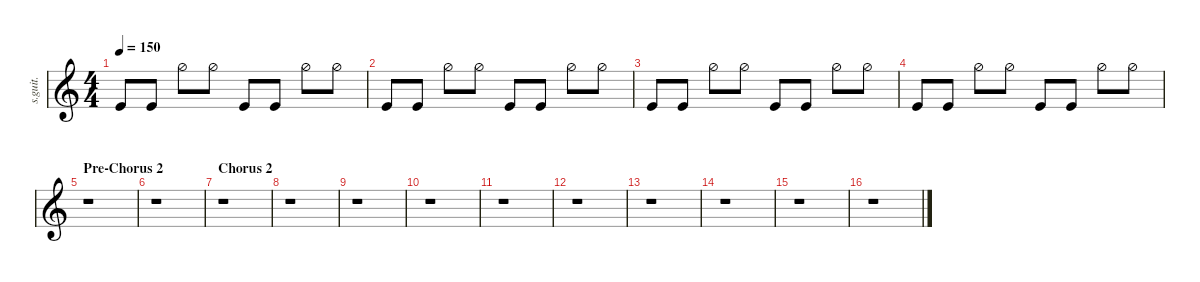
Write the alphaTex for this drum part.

\defaultSystemsLayout 4
\hideDynamics
\bracketExtendMode nobrackets
\track ("Synth Drums 1" "s.guit.") {instrument percussion}
\staff {score}
\articulation defaults
\ts (4 4)
\tempo 150
\clef g2
\ks c "Kick (hit)".8{lyrics (0 "") lyrics (1 "") lyrics (2 "") lyrics (3 "") lyrics (4 "") dy f} "Kick (hit)".8{lyrics (0 "") lyrics (1 "") lyrics (2 "") lyrics (3 "") lyrics (4 "")} "Hi-Hat (half)".8{lyrics (0 "") lyrics (1 "") lyrics (2 "") lyrics (3 "") lyrics (4 "")} "Hi-Hat (half)".8{lyrics (0 "") lyrics (1 "") lyrics (2 "") lyrics (3 "") lyrics (4 "")} "Kick (hit)".8{lyrics (0 "") lyrics (1 "") lyrics (2 "") lyrics (3 "") lyrics (4 "")} "Kick (hit)".8{lyrics (0 "") lyrics (1 "") lyrics (2 "") lyrics (3 "") lyrics (4 "")} "Hi-Hat (half)".8{lyrics (0 "") lyrics (1 "") lyrics (2 "") lyrics (3 "") lyrics (4 "")} "Hi-Hat (half)".8{lyrics (0 "") lyrics (1 "") lyrics (2 "") lyrics (3 "") lyrics (4 "")}
|
"Kick (hit)".8{lyrics (0 "") lyrics (1 "") lyrics (2 "") lyrics (3 "") lyrics (4 "")} "Kick (hit)".8{lyrics (0 "") lyrics (1 "") lyrics (2 "") lyrics (3 "") lyrics (4 "")} "Hi-Hat (half)".8{lyrics (0 "") lyrics (1 "") lyrics (2 "") lyrics (3 "") lyrics (4 "")} "Hi-Hat (half)".8{lyrics (0 "") lyrics (1 "") lyrics (2 "") lyrics (3 "") lyrics (4 "")} "Kick (hit)".8{lyrics (0 "") lyrics (1 "") lyrics (2 "") lyrics (3 "") lyrics (4 "")} "Kick (hit)".8{lyrics (0 "") lyrics (1 "") lyrics (2 "") lyrics (3 "") lyrics (4 "")} "Hi-Hat (half)".8{lyrics (0 "") lyrics (1 "") lyrics (2 "") lyrics (3 "") lyrics (4 "")} "Hi-Hat (half)".8{lyrics (0 "") lyrics (1 "") lyrics (2 "") lyrics (3 "") lyrics (4 "")} |
"Kick (hit)".8{lyrics (0 "") lyrics (1 "") lyrics (2 "") lyrics (3 "") lyrics (4 "")} "Kick (hit)".8{lyrics (0 "") lyrics (1 "") lyrics (2 "") lyrics (3 "") lyrics (4 "")} "Hi-Hat (half)".8{lyrics (0 "") lyrics (1 "") lyrics (2 "") lyrics (3 "") lyrics (4 "")} "Hi-Hat (half)".8{lyrics (0 "") lyrics (1 "") lyrics (2 "") lyrics (3 "") lyrics (4 "")} "Kick (hit)".8{lyrics (0 "") lyrics (1 "") lyrics (2 "") lyrics (3 "") lyrics (4 "")} "Kick (hit)".8{lyrics (0 "") lyrics (1 "") lyrics (2 "") lyrics (3 "") lyrics (4 "")} "Hi-Hat (half)".8{lyrics (0 "") lyrics (1 "") lyrics (2 "") lyrics (3 "") lyrics (4 "")} "Hi-Hat (half)".8{lyrics (0 "") lyrics (1 "") lyrics (2 "") lyrics (3 "") lyrics (4 "")} |
"Kick (hit)".8{lyrics (0 "") lyrics (1 "") lyrics (2 "") lyrics (3 "") lyrics (4 "")} "Kick (hit)".8{lyrics (0 "") lyrics (1 "") lyrics (2 "") lyrics (3 "") lyrics (4 "")} "Hi-Hat (half)".8{lyrics (0 "") lyrics (1 "") lyrics (2 "") lyrics (3 "") lyrics (4 "")} "Hi-Hat (half)".8{lyrics (0 "") lyrics (1 "") lyrics (2 "") lyrics (3 "") lyrics (4 "")} "Kick (hit)".8{lyrics (0 "") lyrics (1 "") lyrics (2 "") lyrics (3 "") lyrics (4 "")} "Kick (hit)".8{lyrics (0 "") lyrics (1 "") lyrics (2 "") lyrics (3 "") lyrics (4 "")} "Hi-Hat (half)".8{lyrics (0 "") lyrics (1 "") lyrics (2 "") lyrics (3 "") lyrics (4 "")} "Hi-Hat (half)".8{lyrics (0 "") lyrics (1 "") lyrics (2 "") lyrics (3 "") lyrics (4 "")} |
\section ("" "Pre-Chorus 2")
r.1 |
r.1 |
\section ("" "Chorus 2")
r.1 |
r.1 |
r.1 |
r.1 |
r.1 |
r.1 |
r.1 |
r.1 |
r.1 |
r.1
